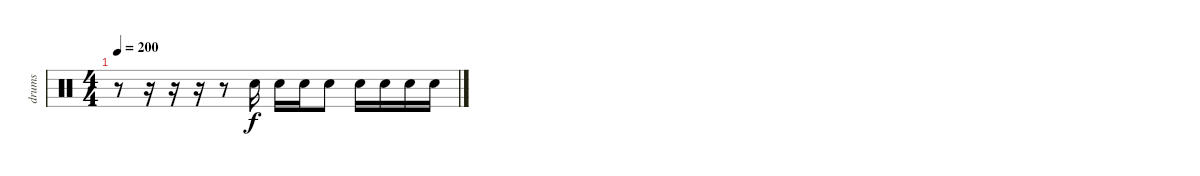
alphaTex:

\track ("drums" "drums") {instrument percussion}
\staff {score}
\articulation defaults
\ts (4 4)
\tempo 200
\clef neutral
\ks c
r.8{dy f} r.16 r.16 r.16 r.8 "Electric Snare (hit)".16 "Electric Snare (hit)".16 "Electric Snare (hit)".16 "Electric Snare (hit)".8 "Electric Snare (hit)".16 "Electric Snare (hit)".16 "Electric Snare (hit)".16 "Electric Snare (hit)".16
